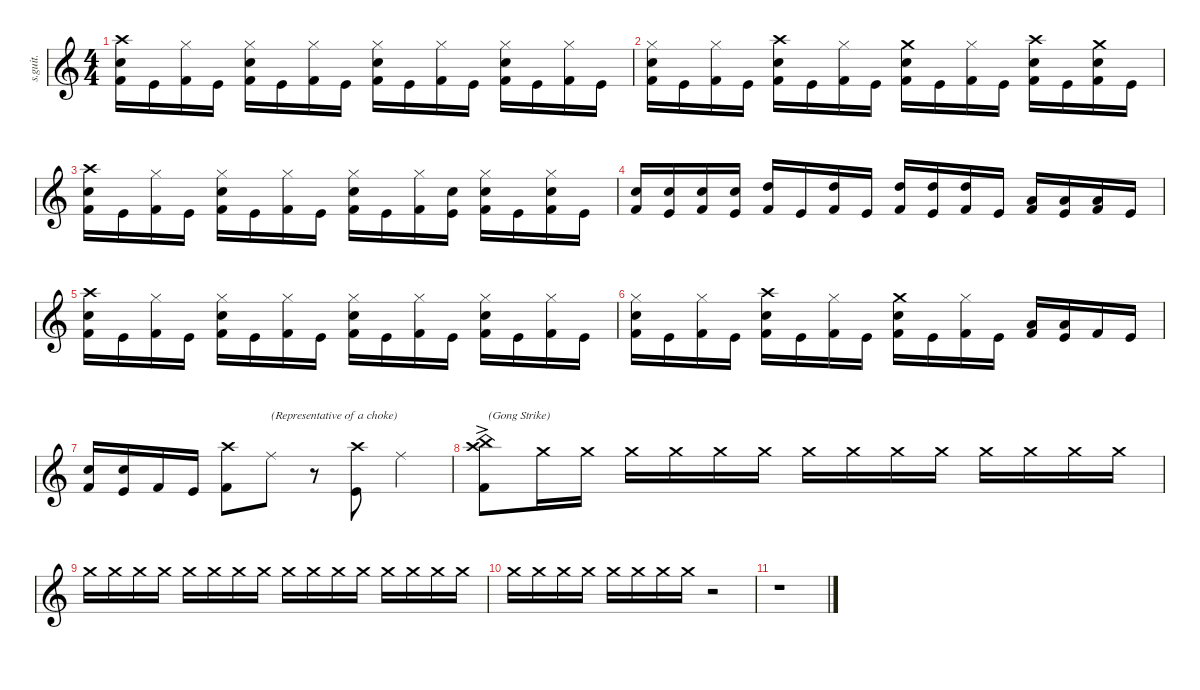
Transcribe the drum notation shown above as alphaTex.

\defaultSystemsLayout 4
\hideDynamics
\bracketExtendMode nobrackets
\track ("Drumkit" "s.guit.") {instrument percussion}
\staff {score}
\articulation defaults
\ts (4 4)
\tempo (130 hide)
\clef g2
\ks c
("Crash high (hit)" "Snare (hit) 2" "Kick (hit) 2").16{lyrics (0 "") lyrics (1 "") lyrics (2 "") lyrics (3 "") lyrics (4 "") dy f} "Kick (hit)".16{lyrics (0 "") lyrics (1 "") lyrics (2 "") lyrics (3 "") lyrics (4 "")} ("Hi-Hat (closed)" "Kick (hit) 2").16{lyrics (0 "") lyrics (1 "") lyrics (2 "") lyrics (3 "") lyrics (4 "")} "Kick (hit)".16{lyrics (0 "") lyrics (1 "") lyrics (2 "") lyrics (3 "") lyrics (4 "")} ("Hi-Hat (closed)" "Snare (hit) 2" "Kick (hit) 2").16{lyrics (0 "") lyrics (1 "") lyrics (2 "") lyrics (3 "") lyrics (4 "")} "Kick (hit)".16{lyrics (0 "") lyrics (1 "") lyrics (2 "") lyrics (3 "") lyrics (4 "")} ("Hi-Hat (closed)" "Kick (hit) 2").16{lyrics (0 "") lyrics (1 "") lyrics (2 "") lyrics (3 "") lyrics (4 "")} "Kick (hit)".16{lyrics (0 "") lyrics (1 "") lyrics (2 "") lyrics (3 "") lyrics (4 "")} ("Hi-Hat (closed)" "Snare (hit) 2" "Kick (hit) 2").16{lyrics (0 "") lyrics (1 "") lyrics (2 "") lyrics (3 "") lyrics (4 "")} "Kick (hit)".16{lyrics (0 "") lyrics (1 "") lyrics (2 "") lyrics (3 "") lyrics (4 "")} ("Hi-Hat (closed)" "Kick (hit) 2").16{lyrics (0 "") lyrics (1 "") lyrics (2 "") lyrics (3 "") lyrics (4 "")} "Kick (hit)".16{lyrics (0 "") lyrics (1 "") lyrics (2 "") lyrics (3 "") lyrics (4 "")} ("Hi-Hat (closed)" "Snare (hit) 2" "Kick (hit) 2").16{lyrics (0 "") lyrics (1 "") lyrics (2 "") lyrics (3 "") lyrics (4 "")} "Kick (hit)".16{lyrics (0 "") lyrics (1 "") lyrics (2 "") lyrics (3 "") lyrics (4 "")} ("Hi-Hat (closed)" "Kick (hit) 2").16{lyrics (0 "") lyrics (1 "") lyrics (2 "") lyrics (3 "") lyrics (4 "")} "Kick (hit)".16{lyrics (0 "") lyrics (1 "") lyrics (2 "") lyrics (3 "") lyrics (4 "")} |
("Hi-Hat (closed)" "Snare (hit) 2" "Kick (hit) 2").16{lyrics (0 "") lyrics (1 "") lyrics (2 "") lyrics (3 "") lyrics (4 "")} "Kick (hit)".16{lyrics (0 "") lyrics (1 "") lyrics (2 "") lyrics (3 "") lyrics (4 "")} ("Hi-Hat (closed)" "Kick (hit) 2").16{lyrics (0 "") lyrics (1 "") lyrics (2 "") lyrics (3 "") lyrics (4 "")} "Kick (hit)".16{lyrics (0 "") lyrics (1 "") lyrics (2 "") lyrics (3 "") lyrics (4 "")} ("Crash high (hit)" "Snare (hit) 2" "Kick (hit) 2").16{lyrics (0 "") lyrics (1 "") lyrics (2 "") lyrics (3 "") lyrics (4 "")} "Kick (hit)".16{lyrics (0 "") lyrics (1 "") lyrics (2 "") lyrics (3 "") lyrics (4 "")} ("Hi-Hat (closed)" "Kick (hit) 2").16{lyrics (0 "") lyrics (1 "") lyrics (2 "") lyrics (3 "") lyrics (4 "")} "Kick (hit)".16{lyrics (0 "") lyrics (1 "") lyrics (2 "") lyrics (3 "") lyrics (4 "")} ("Crash medium (hit)" "Snare (hit) 2" "Kick (hit) 2").16{lyrics (0 "") lyrics (1 "") lyrics (2 "") lyrics (3 "") lyrics (4 "")} "Kick (hit)".16{lyrics (0 "") lyrics (1 "") lyrics (2 "") lyrics (3 "") lyrics (4 "")} ("Hi-Hat (closed)" "Kick (hit) 2").16{lyrics (0 "") lyrics (1 "") lyrics (2 "") lyrics (3 "") lyrics (4 "")} "Kick (hit)".16{lyrics (0 "") lyrics (1 "") lyrics (2 "") lyrics (3 "") lyrics (4 "")} ("Crash high (hit)" "Snare (hit) 2" "Kick (hit) 2").16{lyrics (0 "") lyrics (1 "") lyrics (2 "") lyrics (3 "") lyrics (4 "")} "Kick (hit)".16{lyrics (0 "") lyrics (1 "") lyrics (2 "") lyrics (3 "") lyrics (4 "")} ("Crash medium (hit)" "Snare (hit) 2" "Kick (hit) 2").16{lyrics (0 "") lyrics (1 "") lyrics (2 "") lyrics (3 "") lyrics (4 "")} "Kick (hit)".16{lyrics (0 "") lyrics (1 "") lyrics (2 "") lyrics (3 "") lyrics (4 "")} |
("Crash high (hit)" "Snare (hit) 2" "Kick (hit) 2").16{lyrics (0 "") lyrics (1 "") lyrics (2 "") lyrics (3 "") lyrics (4 "")} "Kick (hit)".16{lyrics (0 "") lyrics (1 "") lyrics (2 "") lyrics (3 "") lyrics (4 "")} ("Hi-Hat (closed)" "Kick (hit) 2").16{lyrics (0 "") lyrics (1 "") lyrics (2 "") lyrics (3 "") lyrics (4 "")} "Kick (hit)".16{lyrics (0 "") lyrics (1 "") lyrics (2 "") lyrics (3 "") lyrics (4 "")} ("Hi-Hat (closed)" "Snare (hit) 2" "Kick (hit) 2").16{lyrics (0 "") lyrics (1 "") lyrics (2 "") lyrics (3 "") lyrics (4 "")} "Kick (hit)".16{lyrics (0 "") lyrics (1 "") lyrics (2 "") lyrics (3 "") lyrics (4 "")} ("Hi-Hat (closed)" "Kick (hit) 2").16{lyrics (0 "") lyrics (1 "") lyrics (2 "") lyrics (3 "") lyrics (4 "")} "Kick (hit)".16{lyrics (0 "") lyrics (1 "") lyrics (2 "") lyrics (3 "") lyrics (4 "")} ("Hi-Hat (closed)" "Snare (hit) 2" "Kick (hit) 2").16{lyrics (0 "") lyrics (1 "") lyrics (2 "") lyrics (3 "") lyrics (4 "")} "Kick (hit)".16{lyrics (0 "") lyrics (1 "") lyrics (2 "") lyrics (3 "") lyrics (4 "")} ("Hi-Hat (closed)" "Kick (hit) 2").16{lyrics (0 "") lyrics (1 "") lyrics (2 "") lyrics (3 "") lyrics (4 "")} ("Snare (hit) 2" "Kick (hit)").16{lyrics (0 "") lyrics (1 "") lyrics (2 "") lyrics (3 "") lyrics (4 "")} ("Hi-Hat (closed)" "Snare (hit) 2" "Kick (hit) 2").16{lyrics (0 "") lyrics (1 "") lyrics (2 "") lyrics (3 "") lyrics (4 "")} "Kick (hit)".16{lyrics (0 "") lyrics (1 "") lyrics (2 "") lyrics (3 "") lyrics (4 "")} ("Hi-Hat (closed)" "Snare (hit) 2" "Kick (hit) 2").16{lyrics (0 "") lyrics (1 "") lyrics (2 "") lyrics (3 "") lyrics (4 "")} "Kick (hit)".16{lyrics (0 "") lyrics (1 "") lyrics (2 "") lyrics (3 "") lyrics (4 "")} |
("Snare (hit) 2" "Kick (hit) 2").16{lyrics (0 "") lyrics (1 "") lyrics (2 "") lyrics (3 "") lyrics (4 "")} ("Snare (hit) 2" "Kick (hit)").16{lyrics (0 "") lyrics (1 "") lyrics (2 "") lyrics (3 "") lyrics (4 "")} ("Snare (hit) 2" "Kick (hit) 2").16{lyrics (0 "") lyrics (1 "") lyrics (2 "") lyrics (3 "") lyrics (4 "")} ("Snare (hit) 2" "Kick (hit)").16{lyrics (0 "") lyrics (1 "") lyrics (2 "") lyrics (3 "") lyrics (4 "")} ("High Tom (hit)" "Kick (hit) 2").16{lyrics (0 "") lyrics (1 "") lyrics (2 "") lyrics (3 "") lyrics (4 "")} "Kick (hit)".16{lyrics (0 "") lyrics (1 "") lyrics (2 "") lyrics (3 "") lyrics (4 "")} ("High Tom (hit)" "Kick (hit) 2").16{lyrics (0 "") lyrics (1 "") lyrics (2 "") lyrics (3 "") lyrics (4 "")} "Kick (hit)".16{lyrics (0 "") lyrics (1 "") lyrics (2 "") lyrics (3 "") lyrics (4 "")} ("High Tom (hit)" "Kick (hit) 2").16{lyrics (0 "") lyrics (1 "") lyrics (2 "") lyrics (3 "") lyrics (4 "")} ("High Tom (hit)" "Kick (hit)").16{lyrics (0 "") lyrics (1 "") lyrics (2 "") lyrics (3 "") lyrics (4 "")} ("High Tom (hit)" "Kick (hit) 2").16{lyrics (0 "") lyrics (1 "") lyrics (2 "") lyrics (3 "") lyrics (4 "")} "Kick (hit)".16{lyrics (0 "") lyrics (1 "") lyrics (2 "") lyrics (3 "") lyrics (4 "")} ("Low Tom (hit)" "Kick (hit) 2").16{lyrics (0 "") lyrics (1 "") lyrics (2 "") lyrics (3 "") lyrics (4 "")} ("Low Tom (hit)" "Kick (hit)").16{lyrics (0 "") lyrics (1 "") lyrics (2 "") lyrics (3 "") lyrics (4 "")} ("Low Tom (hit)" "Kick (hit) 2").16{lyrics (0 "") lyrics (1 "") lyrics (2 "") lyrics (3 "") lyrics (4 "")} "Kick (hit)".16{lyrics (0 "") lyrics (1 "") lyrics (2 "") lyrics (3 "") lyrics (4 "")} |
("Crash high (hit)" "Snare (hit) 2" "Kick (hit) 2").16{lyrics (0 "") lyrics (1 "") lyrics (2 "") lyrics (3 "") lyrics (4 "")} "Kick (hit)".16{lyrics (0 "") lyrics (1 "") lyrics (2 "") lyrics (3 "") lyrics (4 "")} ("Hi-Hat (closed)" "Kick (hit) 2").16{lyrics (0 "") lyrics (1 "") lyrics (2 "") lyrics (3 "") lyrics (4 "")} "Kick (hit)".16{lyrics (0 "") lyrics (1 "") lyrics (2 "") lyrics (3 "") lyrics (4 "")} ("Hi-Hat (closed)" "Snare (hit) 2" "Kick (hit) 2").16{lyrics (0 "") lyrics (1 "") lyrics (2 "") lyrics (3 "") lyrics (4 "")} "Kick (hit)".16{lyrics (0 "") lyrics (1 "") lyrics (2 "") lyrics (3 "") lyrics (4 "")} ("Hi-Hat (closed)" "Kick (hit) 2").16{lyrics (0 "") lyrics (1 "") lyrics (2 "") lyrics (3 "") lyrics (4 "")} "Kick (hit)".16{lyrics (0 "") lyrics (1 "") lyrics (2 "") lyrics (3 "") lyrics (4 "")} ("Hi-Hat (closed)" "Snare (hit) 2" "Kick (hit) 2").16{lyrics (0 "") lyrics (1 "") lyrics (2 "") lyrics (3 "") lyrics (4 "")} "Kick (hit)".16{lyrics (0 "") lyrics (1 "") lyrics (2 "") lyrics (3 "") lyrics (4 "")} ("Hi-Hat (closed)" "Kick (hit) 2").16{lyrics (0 "") lyrics (1 "") lyrics (2 "") lyrics (3 "") lyrics (4 "")} "Kick (hit)".16{lyrics (0 "") lyrics (1 "") lyrics (2 "") lyrics (3 "") lyrics (4 "")} ("Hi-Hat (closed)" "Snare (hit) 2" "Kick (hit) 2").16{lyrics (0 "") lyrics (1 "") lyrics (2 "") lyrics (3 "") lyrics (4 "")} "Kick (hit)".16{lyrics (0 "") lyrics (1 "") lyrics (2 "") lyrics (3 "") lyrics (4 "")} ("Hi-Hat (closed)" "Kick (hit) 2").16{lyrics (0 "") lyrics (1 "") lyrics (2 "") lyrics (3 "") lyrics (4 "")} "Kick (hit)".16{lyrics (0 "") lyrics (1 "") lyrics (2 "") lyrics (3 "") lyrics (4 "")} |
("Hi-Hat (closed)" "Snare (hit) 2" "Kick (hit) 2").16{lyrics (0 "") lyrics (1 "") lyrics (2 "") lyrics (3 "") lyrics (4 "")} "Kick (hit)".16{lyrics (0 "") lyrics (1 "") lyrics (2 "") lyrics (3 "") lyrics (4 "")} ("Hi-Hat (closed)" "Kick (hit) 2").16{lyrics (0 "") lyrics (1 "") lyrics (2 "") lyrics (3 "") lyrics (4 "")} "Kick (hit)".16{lyrics (0 "") lyrics (1 "") lyrics (2 "") lyrics (3 "") lyrics (4 "")} ("Crash high (hit)" "Snare (hit) 2" "Kick (hit) 2").16{lyrics (0 "") lyrics (1 "") lyrics (2 "") lyrics (3 "") lyrics (4 "")} "Kick (hit)".16{lyrics (0 "") lyrics (1 "") lyrics (2 "") lyrics (3 "") lyrics (4 "")} ("Hi-Hat (closed)" "Kick (hit) 2").16{lyrics (0 "") lyrics (1 "") lyrics (2 "") lyrics (3 "") lyrics (4 "")} "Kick (hit)".16{lyrics (0 "") lyrics (1 "") lyrics (2 "") lyrics (3 "") lyrics (4 "")} ("Crash medium (hit)" "Snare (hit) 2" "Kick (hit) 2").16{lyrics (0 "") lyrics (1 "") lyrics (2 "") lyrics (3 "") lyrics (4 "")} "Kick (hit)".16{lyrics (0 "") lyrics (1 "") lyrics (2 "") lyrics (3 "") lyrics (4 "")} ("Hi-Hat (closed)" "Kick (hit) 2").16{lyrics (0 "") lyrics (1 "") lyrics (2 "") lyrics (3 "") lyrics (4 "")} "Kick (hit)".16{lyrics (0 "") lyrics (1 "") lyrics (2 "") lyrics (3 "") lyrics (4 "")} ("Low Tom (hit)" "Kick (hit) 2").16{lyrics (0 "") lyrics (1 "") lyrics (2 "") lyrics (3 "") lyrics (4 "")} ("Low Tom (hit)" "Kick (hit)").16{lyrics (0 "") lyrics (1 "") lyrics (2 "") lyrics (3 "") lyrics (4 "")} "Kick (hit) 2".16{lyrics (0 "") lyrics (1 "") lyrics (2 "") lyrics (3 "") lyrics (4 "")} "Kick (hit)".16{lyrics (0 "") lyrics (1 "") lyrics (2 "") lyrics (3 "") lyrics (4 "")} |
("Snare (hit) 2" "Kick (hit) 2").16{lyrics (0 "") lyrics (1 "") lyrics (2 "") lyrics (3 "") lyrics (4 "")} ("Snare (hit) 2" "Kick (hit)").16{lyrics (0 "") lyrics (1 "") lyrics (2 "") lyrics (3 "") lyrics (4 "")} "Kick (hit) 2".16{lyrics (0 "") lyrics (1 "") lyrics (2 "") lyrics (3 "") lyrics (4 "")} "Kick (hit)".16{lyrics (0 "") lyrics (1 "") lyrics (2 "") lyrics (3 "") lyrics (4 "")} ("Crash high (hit)" "Kick (hit) 2").8{lyrics (0 "") lyrics (1 "") lyrics (2 "") lyrics (3 "") lyrics (4 "")} "Ride (middle)".8{txt "(Representative of a choke)" lyrics (0 "") lyrics (1 "") lyrics (2 "") lyrics (3 "") lyrics (4 "")} r.8 ("Crash high (hit)" "Kick (hit)").8{lyrics (0 "") lyrics (1 "") lyrics (2 "") lyrics (3 "") lyrics (4 "")} "Ride (middle)".4{lyrics (0 "") lyrics (1 "") lyrics (2 "") lyrics (3 "") lyrics (4 "")} |
("China (hit)"{ac} "Crash high (hit)" "Kick (hit) 2").8{txt "(Gong Strike)" lyrics (0 "") lyrics (1 "") lyrics (2 "") lyrics (3 "") lyrics (4 "")} "Crash medium (hit)".16{lyrics (0 "") lyrics (1 "") lyrics (2 "") lyrics (3 "") lyrics (4 "") dy ppp} "Crash medium (hit)".16{lyrics (0 "") lyrics (1 "") lyrics (2 "") lyrics (3 "") lyrics (4 "")} "Crash medium (hit)".16{lyrics (0 "") lyrics (1 "") lyrics (2 "") lyrics (3 "") lyrics (4 "")} "Crash medium (hit)".16{lyrics (0 "") lyrics (1 "") lyrics (2 "") lyrics (3 "") lyrics (4 "") dy pp} "Crash medium (hit)".16{lyrics (0 "") lyrics (1 "") lyrics (2 "") lyrics (3 "") lyrics (4 "")} "Crash medium (hit)".16{lyrics (0 "") lyrics (1 "") lyrics (2 "") lyrics (3 "") lyrics (4 "")} "Crash medium (hit)".16{lyrics (0 "") lyrics (1 "") lyrics (2 "") lyrics (3 "") lyrics (4 "")} "Crash medium (hit)".16{lyrics (0 "") lyrics (1 "") lyrics (2 "") lyrics (3 "") lyrics (4 "") dy p} "Crash medium (hit)".16{lyrics (0 "") lyrics (1 "") lyrics (2 "") lyrics (3 "") lyrics (4 "")} "Crash medium (hit)".16{lyrics (0 "") lyrics (1 "") lyrics (2 "") lyrics (3 "") lyrics (4 "")} "Crash medium (hit)".16{lyrics (0 "") lyrics (1 "") lyrics (2 "") lyrics (3 "") lyrics (4 "") dy mp} "Crash medium (hit)".16{lyrics (0 "") lyrics (1 "") lyrics (2 "") lyrics (3 "") lyrics (4 "")} "Crash medium (hit)".16{lyrics (0 "") lyrics (1 "") lyrics (2 "") lyrics (3 "") lyrics (4 "")} "Crash medium (hit)".16{lyrics (0 "") lyrics (1 "") lyrics (2 "") lyrics (3 "") lyrics (4 "")} |
"Crash medium (hit)".16{lyrics (0 "") lyrics (1 "") lyrics (2 "") lyrics (3 "") lyrics (4 "") dy mf} "Crash medium (hit)".16{lyrics (0 "") lyrics (1 "") lyrics (2 "") lyrics (3 "") lyrics (4 "")} "Crash medium (hit)".16{lyrics (0 "") lyrics (1 "") lyrics (2 "") lyrics (3 "") lyrics (4 "")} "Crash medium (hit)".16{lyrics (0 "") lyrics (1 "") lyrics (2 "") lyrics (3 "") lyrics (4 "") dy f} "Crash medium (hit)".16{lyrics (0 "") lyrics (1 "") lyrics (2 "") lyrics (3 "") lyrics (4 "")} "Crash medium (hit)".16{lyrics (0 "") lyrics (1 "") lyrics (2 "") lyrics (3 "") lyrics (4 "")} "Crash medium (hit)".16{lyrics (0 "") lyrics (1 "") lyrics (2 "") lyrics (3 "") lyrics (4 "")} "Crash medium (hit)".16{lyrics (0 "") lyrics (1 "") lyrics (2 "") lyrics (3 "") lyrics (4 "")} "Crash medium (hit)".16{lyrics (0 "") lyrics (1 "") lyrics (2 "") lyrics (3 "") lyrics (4 "") dy mf} "Crash medium (hit)".16{lyrics (0 "") lyrics (1 "") lyrics (2 "") lyrics (3 "") lyrics (4 "")} "Crash medium (hit)".16{lyrics (0 "") lyrics (1 "") lyrics (2 "") lyrics (3 "") lyrics (4 "") dy mp} "Crash medium (hit)".16{lyrics (0 "") lyrics (1 "") lyrics (2 "") lyrics (3 "") lyrics (4 "")} "Crash medium (hit)".16{lyrics (0 "") lyrics (1 "") lyrics (2 "") lyrics (3 "") lyrics (4 "")} "Crash medium (hit)".16{lyrics (0 "") lyrics (1 "") lyrics (2 "") lyrics (3 "") lyrics (4 "") dy p} "Crash medium (hit)".16{lyrics (0 "") lyrics (1 "") lyrics (2 "") lyrics (3 "") lyrics (4 "")} "Crash medium (hit)".16{lyrics (0 "") lyrics (1 "") lyrics (2 "") lyrics (3 "") lyrics (4 "")} |
"Crash medium (hit)".16{lyrics (0 "") lyrics (1 "") lyrics (2 "") lyrics (3 "") lyrics (4 "") dy pp} "Crash medium (hit)".16{lyrics (0 "") lyrics (1 "") lyrics (2 "") lyrics (3 "") lyrics (4 "")} "Crash medium (hit)".16{lyrics (0 "") lyrics (1 "") lyrics (2 "") lyrics (3 "") lyrics (4 "")} "Crash medium (hit)".16{lyrics (0 "") lyrics (1 "") lyrics (2 "") lyrics (3 "") lyrics (4 "")} "Crash medium (hit)".16{lyrics (0 "") lyrics (1 "") lyrics (2 "") lyrics (3 "") lyrics (4 "") dy ppp} "Crash medium (hit)".16{lyrics (0 "") lyrics (1 "") lyrics (2 "") lyrics (3 "") lyrics (4 "")} "Crash medium (hit)".16{lyrics (0 "") lyrics (1 "") lyrics (2 "") lyrics (3 "") lyrics (4 "")} "Crash medium (hit)".16{lyrics (0 "") lyrics (1 "") lyrics (2 "") lyrics (3 "") lyrics (4 "")} r.2 |
r.1
